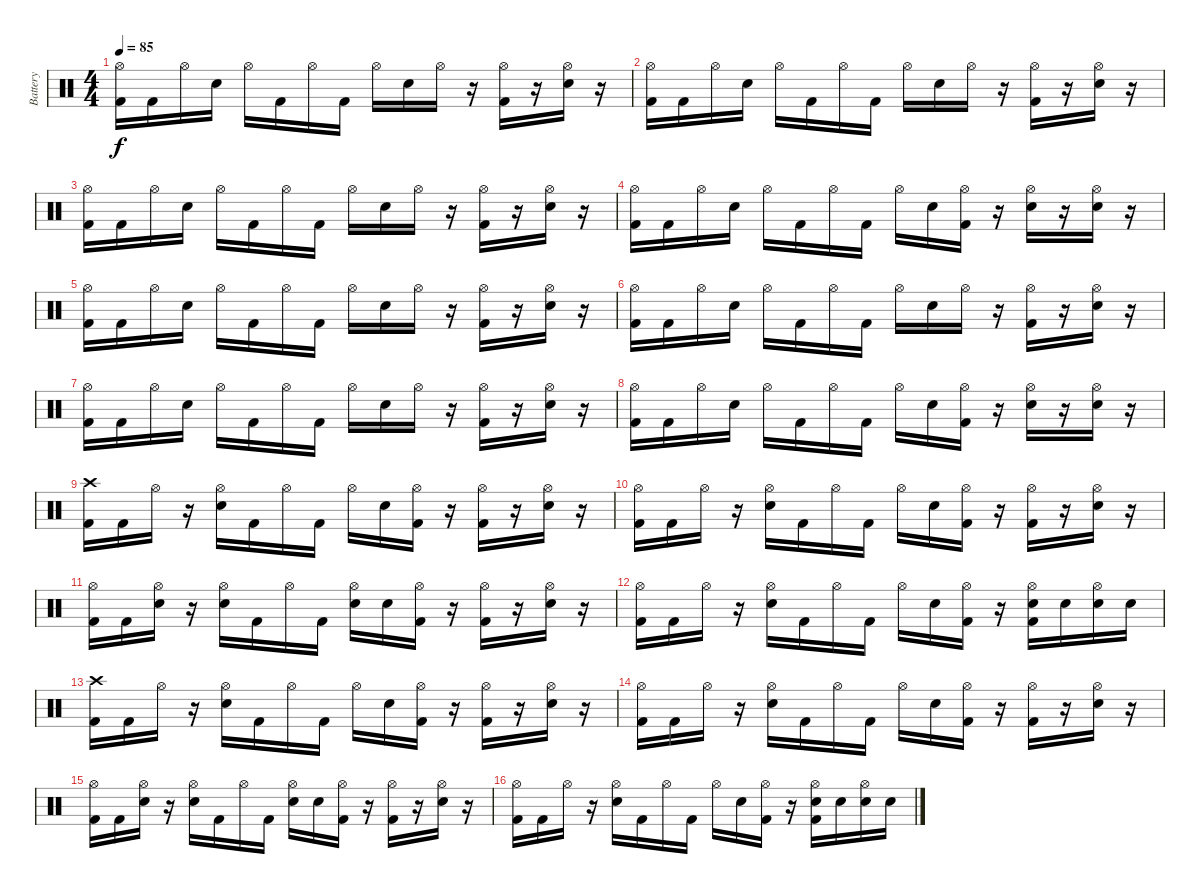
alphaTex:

\track ("Battery" "Battery") {instrument percussion}
\staff {score}
\articulation defaults
\ts (4 4)
\tempo 85
\clef neutral
\ks c
("Hi-Hat (open)" "Kick (hit) 2").16{dy f} "Kick (hit) 2".16 "Hi-Hat (open)".16 "Snare (hit) 2".16 "Hi-Hat (open)".16 "Kick (hit) 2".16 "Hi-Hat (open)".16 "Kick (hit) 2".16 "Hi-Hat (open)".16 "Snare (hit) 2".16 "Hi-Hat (open)".16 r.16 ("Hi-Hat (open)" "Kick (hit) 2").16 r.16 ("Snare (hit) 2" "Hi-Hat (open)").16 r.16 |
("Hi-Hat (open)" "Kick (hit) 2").16 "Kick (hit) 2".16 "Hi-Hat (open)".16 "Snare (hit) 2".16 "Hi-Hat (open)".16 "Kick (hit) 2".16 "Hi-Hat (open)".16 "Kick (hit) 2".16 "Hi-Hat (open)".16 "Snare (hit) 2".16 "Hi-Hat (open)".16 r.16 ("Hi-Hat (open)" "Kick (hit) 2").16 r.16 ("Snare (hit) 2" "Hi-Hat (open)").16 r.16 |
("Hi-Hat (open)" "Kick (hit) 2").16 "Kick (hit) 2".16 "Hi-Hat (open)".16 "Snare (hit) 2".16 "Hi-Hat (open)".16 "Kick (hit) 2".16 "Hi-Hat (open)".16 "Kick (hit) 2".16 "Hi-Hat (open)".16 "Snare (hit) 2".16 "Hi-Hat (open)".16 r.16 ("Hi-Hat (open)" "Kick (hit) 2").16 r.16 ("Snare (hit) 2" "Hi-Hat (open)").16 r.16 |
("Hi-Hat (open)" "Kick (hit) 2").16 "Kick (hit) 2".16 "Hi-Hat (open)".16 "Snare (hit) 2".16 "Hi-Hat (open)".16 "Kick (hit) 2".16 "Hi-Hat (open)".16 "Kick (hit) 2".16 "Hi-Hat (open)".16 "Snare (hit) 2".16 ("Hi-Hat (open)" "Kick (hit) 2").16 r.16 ("Snare (hit) 2" "Hi-Hat (open)").16 r.16 ("Snare (hit) 2" "Hi-Hat (open)").16 r.16 |
("Hi-Hat (open)" "Kick (hit) 2").16 "Kick (hit) 2".16 "Hi-Hat (open)".16 "Snare (hit) 2".16 "Hi-Hat (open)".16 "Kick (hit) 2".16 "Hi-Hat (open)".16 "Kick (hit) 2".16 "Hi-Hat (open)".16 "Snare (hit) 2".16 "Hi-Hat (open)".16 r.16 ("Hi-Hat (open)" "Kick (hit) 2").16 r.16 ("Snare (hit) 2" "Hi-Hat (open)").16 r.16 |
("Hi-Hat (open)" "Kick (hit) 2").16 "Kick (hit) 2".16 "Hi-Hat (open)".16 "Snare (hit) 2".16 "Hi-Hat (open)".16 "Kick (hit) 2".16 "Hi-Hat (open)".16 "Kick (hit) 2".16 "Hi-Hat (open)".16 "Snare (hit) 2".16 "Hi-Hat (open)".16 r.16 ("Hi-Hat (open)" "Kick (hit) 2").16 r.16 ("Snare (hit) 2" "Hi-Hat (open)").16 r.16 |
("Hi-Hat (open)" "Kick (hit) 2").16 "Kick (hit) 2".16 "Hi-Hat (open)".16 "Snare (hit) 2".16 "Hi-Hat (open)".16 "Kick (hit) 2".16 "Hi-Hat (open)".16 "Kick (hit) 2".16 "Hi-Hat (open)".16 "Snare (hit) 2".16 "Hi-Hat (open)".16 r.16 ("Hi-Hat (open)" "Kick (hit) 2").16 r.16 ("Snare (hit) 2" "Hi-Hat (open)").16 r.16 |
("Hi-Hat (open)" "Kick (hit) 2").16 "Kick (hit) 2".16 "Hi-Hat (open)".16 "Snare (hit) 2".16 "Hi-Hat (open)".16 "Kick (hit) 2".16 "Hi-Hat (open)".16 "Kick (hit) 2".16 "Hi-Hat (open)".16 "Snare (hit) 2".16 ("Hi-Hat (open)" "Kick (hit) 2").16 r.16 ("Snare (hit) 2" "Hi-Hat (open)").16 r.16 ("Snare (hit) 2" "Hi-Hat (open)").16 r.16 |
("Crash high (hit)" "Kick (hit) 2").16 "Kick (hit) 2".16 "Hi-Hat (open)".16 r.16 ("Snare (hit) 2" "Hi-Hat (open)").16 "Kick (hit) 2".16 "Hi-Hat (open)".16 "Kick (hit) 2".16 "Hi-Hat (open)".16 "Snare (hit) 2".16 ("Hi-Hat (open)" "Kick (hit) 2").16 r.16 ("Hi-Hat (open)" "Kick (hit) 2").16 r.16 ("Snare (hit) 2" "Hi-Hat (open)").16 r.16 |
("Hi-Hat (open)" "Kick (hit) 2").16 "Kick (hit) 2".16 "Hi-Hat (open)".16 r.16 ("Snare (hit) 2" "Hi-Hat (open)").16 "Kick (hit) 2".16 "Hi-Hat (open)".16 "Kick (hit) 2".16 "Hi-Hat (open)".16 "Snare (hit) 2".16 ("Hi-Hat (open)" "Kick (hit) 2").16 r.16 ("Hi-Hat (open)" "Kick (hit) 2").16 r.16 ("Snare (hit) 2" "Hi-Hat (open)").16 r.16 |
("Hi-Hat (open)" "Kick (hit) 2").16 "Kick (hit) 2".16 ("Snare (hit) 2" "Hi-Hat (open)").16 r.16 ("Snare (hit) 2" "Hi-Hat (open)").16 "Kick (hit) 2".16 "Hi-Hat (open)".16 "Kick (hit) 2".16 ("Snare (hit) 2" "Hi-Hat (open)").16 "Snare (hit) 2".16 ("Hi-Hat (open)" "Kick (hit) 2").16 r.16 ("Hi-Hat (open)" "Kick (hit) 2").16 r.16 ("Snare (hit) 2" "Hi-Hat (open)").16 r.16 |
("Hi-Hat (open)" "Kick (hit) 2").16 "Kick (hit) 2".16 "Hi-Hat (open)".16 r.16 ("Snare (hit) 2" "Hi-Hat (open)").16 "Kick (hit) 2".16 "Hi-Hat (open)".16 "Kick (hit) 2".16 "Hi-Hat (open)".16 "Snare (hit) 2".16 ("Hi-Hat (open)" "Kick (hit) 2").16 r.16 ("Snare (hit) 2" "Hi-Hat (open)" "Kick (hit) 2").16 "Snare (hit) 2".16 ("Snare (hit) 2" "Hi-Hat (open)").16 "Snare (hit) 2".16 |
("Crash high (hit)" "Kick (hit) 2").16 "Kick (hit) 2".16 "Hi-Hat (open)".16 r.16 ("Snare (hit) 2" "Hi-Hat (open)").16 "Kick (hit) 2".16 "Hi-Hat (open)".16 "Kick (hit) 2".16 "Hi-Hat (open)".16 "Snare (hit) 2".16 ("Hi-Hat (open)" "Kick (hit) 2").16 r.16 ("Hi-Hat (open)" "Kick (hit) 2").16 r.16 ("Snare (hit) 2" "Hi-Hat (open)").16 r.16 |
("Hi-Hat (open)" "Kick (hit) 2").16 "Kick (hit) 2".16 "Hi-Hat (open)".16 r.16 ("Snare (hit) 2" "Hi-Hat (open)").16 "Kick (hit) 2".16 "Hi-Hat (open)".16 "Kick (hit) 2".16 "Hi-Hat (open)".16 "Snare (hit) 2".16 ("Hi-Hat (open)" "Kick (hit) 2").16 r.16 ("Hi-Hat (open)" "Kick (hit) 2").16 r.16 ("Snare (hit) 2" "Hi-Hat (open)").16 r.16 |
("Hi-Hat (open)" "Kick (hit) 2").16 "Kick (hit) 2".16 ("Snare (hit) 2" "Hi-Hat (open)").16 r.16 ("Snare (hit) 2" "Hi-Hat (open)").16 "Kick (hit) 2".16 "Hi-Hat (open)".16 "Kick (hit) 2".16 ("Snare (hit) 2" "Hi-Hat (open)").16 "Snare (hit) 2".16 ("Hi-Hat (open)" "Kick (hit) 2").16 r.16 ("Hi-Hat (open)" "Kick (hit) 2").16 r.16 ("Snare (hit) 2" "Hi-Hat (open)").16 r.16 |
("Hi-Hat (open)" "Kick (hit) 2").16 "Kick (hit) 2".16 "Hi-Hat (open)".16 r.16 ("Snare (hit) 2" "Hi-Hat (open)").16 "Kick (hit) 2".16 "Hi-Hat (open)".16 "Kick (hit) 2".16 "Hi-Hat (open)".16 "Snare (hit) 2".16 ("Hi-Hat (open)" "Kick (hit) 2").16 r.16 ("Snare (hit) 2" "Hi-Hat (open)" "Kick (hit) 2").16 "Snare (hit) 2".16 ("Snare (hit) 2" "Hi-Hat (open)").16 "Snare (hit) 2".16
